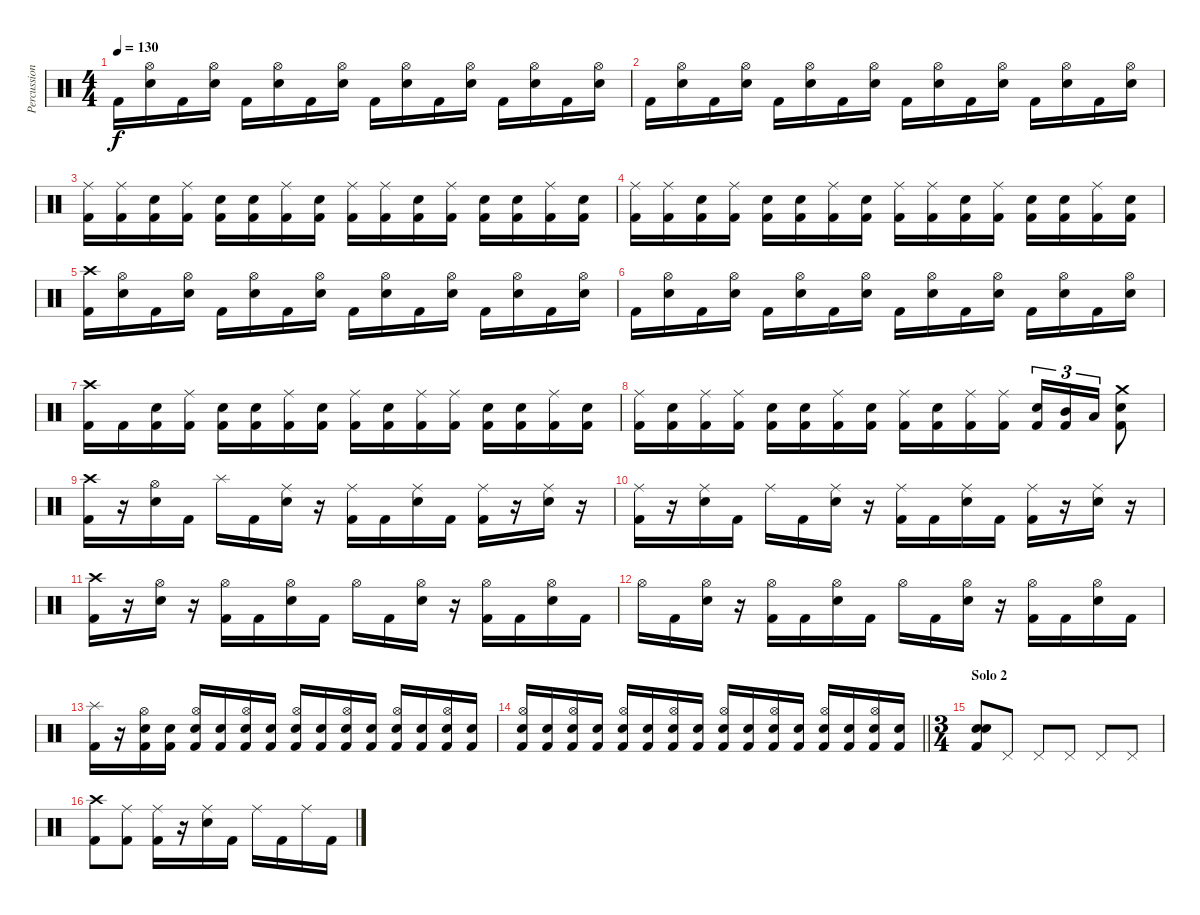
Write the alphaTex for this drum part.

\track ("Percussions" "Percussion") {instrument percussion}
\staff {score}
\articulation defaults
\ts (4 4)
\tempo 130
\clef neutral
\ks c "Kick (hit) 2".16{dy f}
("Hi-Hat (open)" "Electric Snare (hit)").16 "Kick (hit) 2".16 ("Hi-Hat (open)" "Electric Snare (hit)").16 "Kick (hit) 2".16 ("Hi-Hat (open)" "Electric Snare (hit)").16 "Kick (hit) 2".16 ("Hi-Hat (open)" "Electric Snare (hit)").16 "Kick (hit) 2".16 ("Hi-Hat (open)" "Electric Snare (hit)").16 "Kick (hit) 2".16 ("Hi-Hat (open)" "Electric Snare (hit)").16 "Kick (hit) 2".16 ("Hi-Hat (open)" "Electric Snare (hit)").16 "Kick (hit) 2".16 ("Hi-Hat (open)" "Electric Snare (hit)").16 |
"Kick (hit) 2".16 ("Hi-Hat (open)" "Electric Snare (hit)").16 "Kick (hit) 2".16 ("Hi-Hat (open)" "Electric Snare (hit)").16 "Kick (hit) 2".16 ("Hi-Hat (open)" "Electric Snare (hit)").16 "Kick (hit) 2".16 ("Hi-Hat (open)" "Electric Snare (hit)").16 "Kick (hit) 2".16 ("Hi-Hat (open)" "Electric Snare (hit)").16 "Kick (hit) 2".16 ("Hi-Hat (open)" "Electric Snare (hit)").16 "Kick (hit) 2".16 ("Hi-Hat (open)" "Electric Snare (hit)").16 "Kick (hit) 2".16 ("Hi-Hat (open)" "Electric Snare (hit)").16 |
("Ride (middle)" "Kick (hit) 2").16 ("Ride (middle)" "Kick (hit) 2").16 ("Electric Snare (hit)" "Kick (hit) 2").16 ("Ride (middle)" "Kick (hit) 2").16 ("Electric Snare (hit)" "Kick (hit) 2").16 ("Electric Snare (hit)" "Kick (hit) 2").16 ("Ride (middle)" "Kick (hit) 2").16 ("Electric Snare (hit)" "Kick (hit) 2").16 ("Ride (middle)" "Kick (hit) 2").16 ("Ride (middle)" "Kick (hit) 2").16 ("Electric Snare (hit)" "Kick (hit) 2").16 ("Ride (middle)" "Kick (hit) 2").16 ("Electric Snare (hit)" "Kick (hit) 2").16 ("Electric Snare (hit)" "Kick (hit) 2").16 ("Ride (middle)" "Kick (hit) 2").16 ("Electric Snare (hit)" "Kick (hit) 2").16 |
("Ride (middle)" "Kick (hit) 2").16 ("Ride (middle)" "Kick (hit) 2").16 ("Electric Snare (hit)" "Kick (hit) 2").16 ("Ride (middle)" "Kick (hit) 2").16 ("Electric Snare (hit)" "Kick (hit) 2").16 ("Electric Snare (hit)" "Kick (hit) 2").16 ("Ride (middle)" "Kick (hit) 2").16 ("Electric Snare (hit)" "Kick (hit) 2").16 ("Ride (middle)" "Kick (hit) 2").16 ("Ride (middle)" "Kick (hit) 2").16 ("Electric Snare (hit)" "Kick (hit) 2").16 ("Ride (middle)" "Kick (hit) 2").16 ("Electric Snare (hit)" "Kick (hit) 2").16 ("Electric Snare (hit)" "Kick (hit) 2").16 ("Ride (middle)" "Kick (hit) 2").16 ("Electric Snare (hit)" "Kick (hit) 2").16 |
("Crash high (hit)" "Kick (hit) 2").16 ("Hi-Hat (open)" "Electric Snare (hit)").16 "Kick (hit) 2".16 ("Hi-Hat (open)" "Electric Snare (hit)").16 "Kick (hit) 2".16 ("Hi-Hat (open)" "Electric Snare (hit)").16 "Kick (hit) 2".16 ("Hi-Hat (open)" "Electric Snare (hit)").16 "Kick (hit) 2".16 ("Hi-Hat (open)" "Electric Snare (hit)").16 "Kick (hit) 2".16 ("Hi-Hat (open)" "Electric Snare (hit)").16 "Kick (hit) 2".16 ("Hi-Hat (open)" "Electric Snare (hit)").16 "Kick (hit) 2".16 ("Hi-Hat (open)" "Electric Snare (hit)").16 |
"Kick (hit) 2".16 ("Hi-Hat (open)" "Electric Snare (hit)").16 "Kick (hit) 2".16 ("Hi-Hat (open)" "Electric Snare (hit)").16 "Kick (hit) 2".16 ("Hi-Hat (open)" "Electric Snare (hit)").16 "Kick (hit) 2".16 ("Hi-Hat (open)" "Electric Snare (hit)").16 "Kick (hit) 2".16 ("Hi-Hat (open)" "Electric Snare (hit)").16 "Kick (hit) 2".16 ("Hi-Hat (open)" "Electric Snare (hit)").16 "Kick (hit) 2".16 ("Hi-Hat (open)" "Electric Snare (hit)").16 "Kick (hit) 2".16 ("Hi-Hat (open)" "Electric Snare (hit)").16 |
("Crash high (hit)" "Kick (hit) 2").16 "Kick (hit) 2".16 ("Electric Snare (hit)" "Kick (hit) 2").16 ("Ride (middle)" "Kick (hit) 2").16 ("Electric Snare (hit)" "Kick (hit) 2").16 ("Electric Snare (hit)" "Kick (hit) 2").16 ("Ride (middle)" "Kick (hit) 2").16 ("Electric Snare (hit)" "Kick (hit) 2").16 ("Ride (middle)" "Kick (hit) 2").16 ("Electric Snare (hit)" "Kick (hit) 2").16 ("Ride (middle)" "Kick (hit) 2").16 ("Ride (middle)" "Kick (hit) 2").16 ("Electric Snare (hit)" "Kick (hit) 2").16 ("Electric Snare (hit)" "Kick (hit) 2").16 ("Ride (middle)" "Kick (hit) 2").16 ("Electric Snare (hit)" "Kick (hit) 2").16 |
("Ride (middle)" "Kick (hit) 2").16 ("Electric Snare (hit)" "Kick (hit) 2").16 ("Ride (middle)" "Kick (hit) 2").16 ("Ride (middle)" "Kick (hit) 2").16 ("Electric Snare (hit)" "Kick (hit) 2").16 ("Electric Snare (hit)" "Kick (hit) 2").16 ("Ride (middle)" "Kick (hit) 2").16 ("Electric Snare (hit)" "Kick (hit) 2").16 ("Ride (middle)" "Kick (hit) 2").16 ("Electric Snare (hit)" "Kick (hit) 2").16 ("Ride (middle)" "Kick (hit) 2").16 ("Ride (middle)" "Kick (hit) 2").16 ("Electric Snare (hit)" "Kick (hit) 2").16{tu (3 2)} ("Mid Tom (hit)" "Kick (hit) 2").16{tu (3 2)} "Low Tom (hit)".16{tu (3 2)} ("Crash medium (hit)" "Electric Snare (hit)" "Kick (hit) 2").8 |
("Crash high (hit)" "Kick (hit) 2").16 r.16 ("Hi-Hat (open)" "Electric Snare (hit)").16 "Kick (hit) 2".16 "Splash (hit)".16 "Kick (hit) 2".16 ("Ride (middle)" "Electric Snare (hit)").16 r.16 ("Ride (middle)" "Kick (hit) 2").16 "Kick (hit) 2".16 ("Ride (middle)" "Electric Snare (hit)").16 "Kick (hit) 2".16 ("Ride (middle)" "Kick (hit) 2").16 r.16 ("Ride (middle)" "Electric Snare (hit)").16 r.16 |
("Ride (middle)" "Kick (hit) 2").16 r.16 ("Ride (middle)" "Electric Snare (hit)").16 "Kick (hit) 2".16 "Ride (middle)".16 "Kick (hit) 2".16 ("Ride (middle)" "Electric Snare (hit)").16 r.16 ("Ride (middle)" "Kick (hit) 2").16 "Kick (hit) 2".16 ("Ride (middle)" "Electric Snare (hit)").16 "Kick (hit) 2".16 ("Ride (middle)" "Kick (hit) 2").16 r.16 ("Ride (middle)" "Electric Snare (hit)").16 r.16 |
("Crash high (hit)" "Kick (hit) 2").16 r.16 ("Hi-Hat (open)" "Electric Snare (hit)").16 r.16 ("Hi-Hat (open)" "Kick (hit) 2").16 "Kick (hit) 2".16 ("Hi-Hat (open)" "Electric Snare (hit)").16 "Kick (hit) 2".16 "Hi-Hat (open)".16 "Kick (hit) 2".16 ("Hi-Hat (open)" "Electric Snare (hit)").16 r.16 ("Hi-Hat (open)" "Kick (hit) 2").16 "Kick (hit) 2".16 ("Hi-Hat (open)" "Electric Snare (hit)").16 "Kick (hit) 2".16 |
"Hi-Hat (open)".16 "Kick (hit) 2".16 ("Hi-Hat (open)" "Electric Snare (hit)").16 r.16 ("Hi-Hat (open)" "Kick (hit) 2").16 "Kick (hit) 2".16 ("Hi-Hat (open)" "Electric Snare (hit)").16 "Kick (hit) 2".16 "Hi-Hat (open)".16 "Kick (hit) 2".16 ("Hi-Hat (open)" "Electric Snare (hit)").16 r.16 ("Hi-Hat (open)" "Kick (hit) 2").16 "Kick (hit) 2".16 ("Hi-Hat (open)" "Electric Snare (hit)").16 "Kick (hit) 2".16 |
("Splash (hit)" "Kick (hit) 2").16 r.16 ("Hi-Hat (open)" "Electric Snare (hit)" "Kick (hit) 2").16 ("Electric Snare (hit)" "Kick (hit) 2").16 ("Hi-Hat (open)" "Electric Snare (hit)" "Kick (hit) 2").16 ("Electric Snare (hit)" "Kick (hit) 2").16 ("Hi-Hat (open)" "Electric Snare (hit)" "Kick (hit) 2").16 ("Electric Snare (hit)" "Kick (hit) 2").16 ("Hi-Hat (open)" "Electric Snare (hit)" "Kick (hit) 2").16 ("Electric Snare (hit)" "Kick (hit) 2").16 ("Hi-Hat (open)" "Electric Snare (hit)" "Kick (hit) 2").16 ("Electric Snare (hit)" "Kick (hit) 2").16 ("Hi-Hat (open)" "Electric Snare (hit)" "Kick (hit) 2").16 ("Electric Snare (hit)" "Kick (hit) 2").16 ("Hi-Hat (open)" "Electric Snare (hit)" "Kick (hit) 2").16 ("Electric Snare (hit)" "Kick (hit) 2").16 |
\barLineRight lightlight
("Hi-Hat (open)" "Electric Snare (hit)" "Kick (hit) 2").16 ("Electric Snare (hit)" "Kick (hit) 2").16 ("Hi-Hat (open)" "Electric Snare (hit)" "Kick (hit) 2").16 ("Electric Snare (hit)" "Kick (hit) 2").16 ("Hi-Hat (open)" "Electric Snare (hit)" "Kick (hit) 2").16 ("Electric Snare (hit)" "Kick (hit) 2").16 ("Hi-Hat (open)" "Electric Snare (hit)" "Kick (hit) 2").16 ("Electric Snare (hit)" "Kick (hit) 2").16 ("Hi-Hat (open)" "Electric Snare (hit)" "Kick (hit) 2").16 ("Electric Snare (hit)" "Kick (hit) 2").16 ("Hi-Hat (open)" "Electric Snare (hit)" "Kick (hit) 2").16 ("Electric Snare (hit)" "Kick (hit) 2").16 ("Hi-Hat (open)" "Electric Snare (hit)" "Kick (hit) 2").16 ("Electric Snare (hit)" "Kick (hit) 2").16 ("Hi-Hat (open)" "Electric Snare (hit)" "Kick (hit) 2").16 ("Electric Snare (hit)" "Kick (hit) 2").16 |
\ts (3 4)
\section ("" "Solo 2")
("Electric Snare (hit)" "Electric Snare (hit)" "Kick (hit) 2").8 "Pedal Hi-Hat (hit)".8 "Pedal Hi-Hat (hit)".8 "Pedal Hi-Hat (hit)".8 "Pedal Hi-Hat (hit)".8 "Pedal Hi-Hat (hit)".8 |
("Crash high (hit)" "Kick (hit) 2").8 ("Ride (middle)" "Kick (hit) 2").8 ("Ride (middle)" "Kick (hit) 2").16 r.16 ("Ride (middle)" "Electric Snare (hit)").16 "Kick (hit) 2".16 "Ride (middle)".16 "Kick (hit) 2".16 "Ride (middle)".16 "Kick (hit) 2".16
